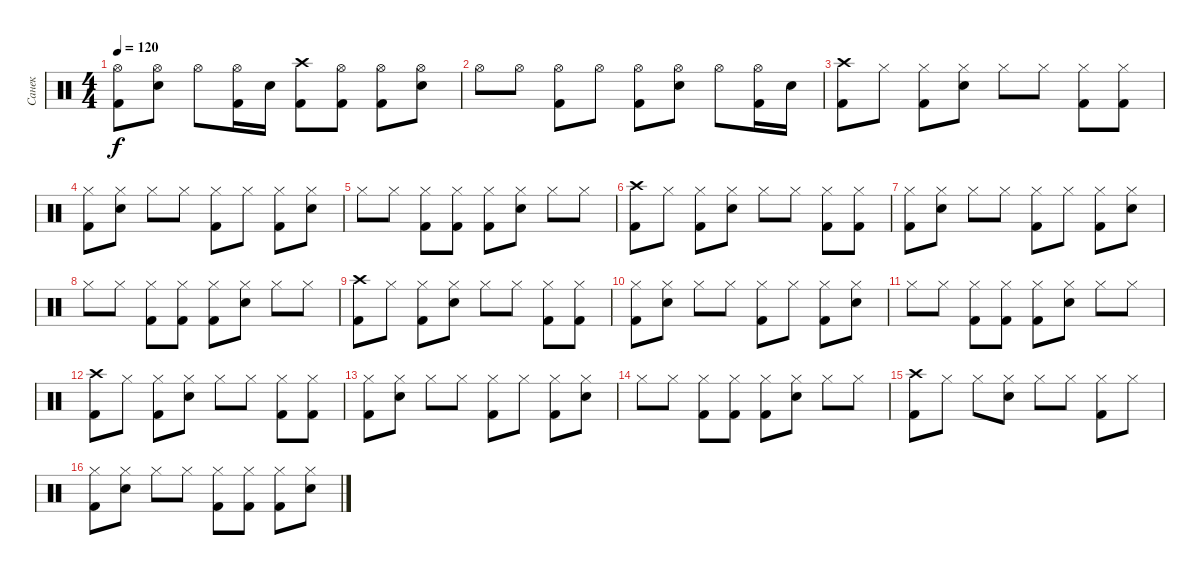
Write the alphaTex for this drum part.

\track ("Санек" "Санек") {instrument percussion}
\staff {score}
\articulation defaults
\ts (4 4)
\tempo 120
\clef neutral
\ks c
("Hi-Hat (open)" "Kick (hit) 2").8{dy f} ("Hi-Hat (open)" "Electric Snare (hit)").8 "Hi-Hat (open)".8 ("Hi-Hat (open)" "Kick (hit) 2").16 "Electric Snare (hit)".16 ("Crash high (hit)" "Kick (hit) 2").8 ("Hi-Hat (open)" "Kick (hit) 2").8 ("Hi-Hat (open)" "Kick (hit) 2").8 ("Hi-Hat (open)" "Electric Snare (hit)").8 |
"Hi-Hat (open)".8 "Hi-Hat (open)".8 ("Hi-Hat (open)" "Kick (hit) 2").8 "Hi-Hat (open)".8 ("Hi-Hat (open)" "Kick (hit) 2").8 ("Hi-Hat (open)" "Electric Snare (hit)").8 "Hi-Hat (open)".8 ("Hi-Hat (open)" "Kick (hit) 2").16 "Electric Snare (hit)".16 |
("Crash high (hit)" "Kick (hit) 2").8 "Hi-Hat (closed)".8 ("Hi-Hat (closed)" "Kick (hit) 2").8 ("Hi-Hat (closed)" "Electric Snare (hit)").8 "Hi-Hat (closed)".8 "Hi-Hat (closed)".8 ("Hi-Hat (closed)" "Kick (hit) 2").8 ("Hi-Hat (closed)" "Kick (hit) 2").8 |
("Hi-Hat (closed)" "Kick (hit) 2").8 ("Hi-Hat (closed)" "Electric Snare (hit)").8 "Hi-Hat (closed)".8 "Hi-Hat (closed)".8 ("Hi-Hat (closed)" "Kick (hit) 2").8 "Hi-Hat (closed)".8 ("Hi-Hat (closed)" "Kick (hit) 2").8 ("Hi-Hat (closed)" "Electric Snare (hit)").8 |
"Hi-Hat (closed)".8 "Hi-Hat (closed)".8 ("Hi-Hat (closed)" "Kick (hit) 2").8 ("Hi-Hat (closed)" "Kick (hit) 2").8 ("Hi-Hat (closed)" "Kick (hit) 2").8 ("Hi-Hat (closed)" "Electric Snare (hit)").8 "Hi-Hat (closed)".8 "Hi-Hat (closed)".8 |
("Crash high (hit)" "Kick (hit) 2").8 "Hi-Hat (closed)".8 ("Hi-Hat (closed)" "Kick (hit) 2").8 ("Hi-Hat (closed)" "Electric Snare (hit)").8 "Hi-Hat (closed)".8 "Hi-Hat (closed)".8 ("Hi-Hat (closed)" "Kick (hit) 2").8 ("Hi-Hat (closed)" "Kick (hit) 2").8 |
("Hi-Hat (closed)" "Kick (hit) 2").8 ("Hi-Hat (closed)" "Electric Snare (hit)").8 "Hi-Hat (closed)".8 "Hi-Hat (closed)".8 ("Hi-Hat (closed)" "Kick (hit) 2").8 "Hi-Hat (closed)".8 ("Hi-Hat (closed)" "Kick (hit) 2").8 ("Hi-Hat (closed)" "Electric Snare (hit)").8 |
"Hi-Hat (closed)".8 "Hi-Hat (closed)".8 ("Hi-Hat (closed)" "Kick (hit) 2").8 ("Hi-Hat (closed)" "Kick (hit) 2").8 ("Hi-Hat (closed)" "Kick (hit) 2").8 ("Hi-Hat (closed)" "Electric Snare (hit)").8 "Hi-Hat (closed)".8 "Hi-Hat (closed)".8 |
("Crash high (hit)" "Kick (hit) 2").8 "Hi-Hat (closed)".8 ("Hi-Hat (closed)" "Kick (hit) 2").8 ("Hi-Hat (closed)" "Electric Snare (hit)").8 "Hi-Hat (closed)".8 "Hi-Hat (closed)".8 ("Hi-Hat (closed)" "Kick (hit) 2").8 ("Hi-Hat (closed)" "Kick (hit) 2").8 |
("Hi-Hat (closed)" "Kick (hit) 2").8 ("Hi-Hat (closed)" "Electric Snare (hit)").8 "Hi-Hat (closed)".8 "Hi-Hat (closed)".8 ("Hi-Hat (closed)" "Kick (hit) 2").8 "Hi-Hat (closed)".8 ("Hi-Hat (closed)" "Kick (hit) 2").8 ("Hi-Hat (closed)" "Electric Snare (hit)").8 |
"Hi-Hat (closed)".8 "Hi-Hat (closed)".8 ("Hi-Hat (closed)" "Kick (hit) 2").8 ("Hi-Hat (closed)" "Kick (hit) 2").8 ("Hi-Hat (closed)" "Kick (hit) 2").8 ("Hi-Hat (closed)" "Electric Snare (hit)").8 "Hi-Hat (closed)".8 "Hi-Hat (closed)".8 |
("Crash high (hit)" "Kick (hit) 2").8 "Hi-Hat (closed)".8 ("Hi-Hat (closed)" "Kick (hit) 2").8 ("Hi-Hat (closed)" "Electric Snare (hit)").8 "Hi-Hat (closed)".8 "Hi-Hat (closed)".8 ("Hi-Hat (closed)" "Kick (hit) 2").8 ("Hi-Hat (closed)" "Kick (hit) 2").8 |
("Hi-Hat (closed)" "Kick (hit) 2").8 ("Hi-Hat (closed)" "Electric Snare (hit)").8 "Hi-Hat (closed)".8 "Hi-Hat (closed)".8 ("Hi-Hat (closed)" "Kick (hit) 2").8 "Hi-Hat (closed)".8 ("Hi-Hat (closed)" "Kick (hit) 2").8 ("Hi-Hat (closed)" "Electric Snare (hit)").8 |
"Hi-Hat (closed)".8 "Hi-Hat (closed)".8 ("Hi-Hat (closed)" "Kick (hit) 2").8 ("Hi-Hat (closed)" "Kick (hit) 2").8 ("Hi-Hat (closed)" "Kick (hit) 2").8 ("Hi-Hat (closed)" "Electric Snare (hit)").8 "Hi-Hat (closed)".8 "Hi-Hat (closed)".8 |
("Crash high (hit)" "Kick (hit) 2").8 "Hi-Hat (closed)".8 "Hi-Hat (closed)".8 ("Hi-Hat (closed)" "Electric Snare (hit)").8 "Hi-Hat (closed)".8 "Hi-Hat (closed)".8 ("Hi-Hat (closed)" "Kick (hit) 2").8 "Hi-Hat (closed)".8 |
("Hi-Hat (closed)" "Kick (hit) 2").8 ("Hi-Hat (closed)" "Electric Snare (hit)").8 "Hi-Hat (closed)".8 "Hi-Hat (closed)".8 ("Hi-Hat (closed)" "Kick (hit) 2").8 ("Hi-Hat (closed)" "Kick (hit) 2").8 ("Hi-Hat (closed)" "Kick (hit) 2").8 ("Hi-Hat (closed)" "Electric Snare (hit)").8
